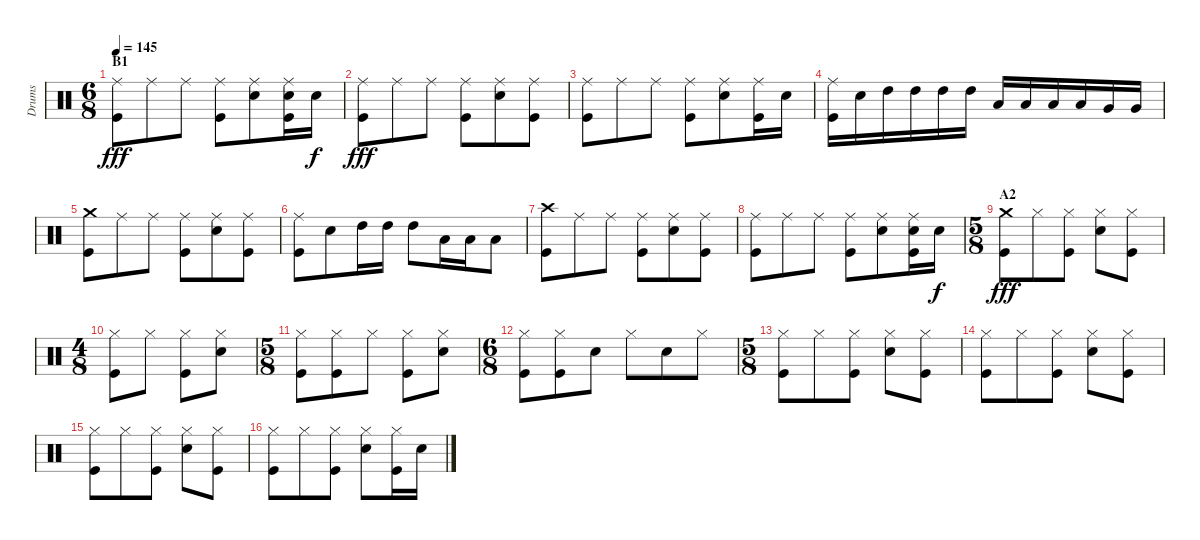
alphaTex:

\track ("Drums" "Drums") {instrument percussion}
\staff {score}
\articulation defaults
\ts (6 8)
\section ("" "B1")
\tempo 145
\clef neutral
\ks c
("Ride (middle)" "Kick (hit)").8{dy fff} "Ride (middle)".8 "Ride (middle)".8 ("Ride (middle)" "Kick (hit)").8 ("Ride (middle)" "Snare (hit) 2").8 ("Ride (middle)" "Snare (hit) 2" "Kick (hit)").16 "Snare (hit) 2".16{dy f} |
("Ride (middle)" "Kick (hit)").8{dy fff} "Ride (middle)".8 "Ride (middle)".8 ("Ride (middle)" "Kick (hit)").8 ("Ride (middle)" "Snare (hit) 2").8 ("Ride (middle)" "Kick (hit)").8 |
("Ride (middle)" "Kick (hit)").8 "Ride (middle)".8 "Ride (middle)".8 ("Ride (middle)" "Kick (hit)").8 ("Ride (middle)" "Snare (hit) 2").8 ("Ride (middle)" "Kick (hit)").16 "Snare (hit) 2".16 |
("Ride (middle)" "Kick (hit)").16 "Snare (hit) 2".16 "High Tom (hit)".16 "High Tom (hit)".16 "High Tom (hit)".16 "High Tom (hit)".16 "Low Tom (hit)".16 "Low Tom (hit)".16 "Low Tom (hit)".16 "Low Tom (hit)".16 "Very Low Tom (hit)".16 "Very Low Tom (hit)".16 |
("Crash medium (hit)" "Kick (hit)").8 "Ride (middle)".8 "Ride (middle)".8 ("Ride (middle)" "Kick (hit)").8 ("Ride (middle)" "Snare (hit) 2").8 ("Ride (middle)" "Kick (hit)").8 |
("Ride (middle)" "Kick (hit)").8 "Snare (hit) 2".8 "High Tom (hit)".16 "High Tom (hit)".16 "High Tom (hit)".8 "Low Tom (hit)".16 "Low Tom (hit)".16 "Low Tom (hit)".8 |
("Crash high (hit)" "Kick (hit)").8 "Ride (middle)".8 "Ride (middle)".8 ("Ride (middle)" "Kick (hit)").8 ("Ride (middle)" "Snare (hit) 2").8 ("Ride (middle)" "Kick (hit)").8 |
("Ride (middle)" "Kick (hit)").8 "Ride (middle)".8 "Ride (middle)".8 ("Ride (middle)" "Kick (hit)").8 ("Ride (middle)" "Snare (hit) 2").8 ("Ride (middle)" "Snare (hit) 2" "Kick (hit)").16 "Snare (hit) 2".16{dy f} |
\ts (5 8)
\section ("" "A2")
("Crash medium (hit)" "Kick (hit)").8{dy fff} "Hi-Hat (closed)".8 ("Hi-Hat (closed)" "Kick (hit)").8 ("Hi-Hat (closed)" "Snare (hit) 2").8 ("Hi-Hat (closed)" "Kick (hit)").8 |
\ts (4 8)
("Hi-Hat (closed)" "Kick (hit)").8 "Hi-Hat (closed)".8 ("Hi-Hat (closed)" "Kick (hit)").8 ("Hi-Hat (closed)" "Snare (hit) 2").8 |
\ts (5 8)
("Hi-Hat (closed)" "Kick (hit)").8 ("Hi-Hat (closed)" "Kick (hit)").8 "Hi-Hat (closed)".8 ("Hi-Hat (closed)" "Kick (hit)").8 ("Hi-Hat (closed)" "Snare (hit) 2").8 |
\ts (6 8)
("Hi-Hat (closed)" "Kick (hit)").8 ("Hi-Hat (closed)" "Kick (hit)").8 "Snare (hit) 2".8 "Hi-Hat (closed)".8 "Snare (hit) 2".8 "Hi-Hat (closed)".8 |
\ts (5 8)
("Hi-Hat (closed)" "Kick (hit)").8 "Hi-Hat (closed)".8 ("Hi-Hat (closed)" "Kick (hit)").8 ("Hi-Hat (closed)" "Snare (hit) 2").8 ("Hi-Hat (closed)" "Kick (hit)").8 |
("Hi-Hat (closed)" "Kick (hit)").8 "Hi-Hat (closed)".8 ("Hi-Hat (closed)" "Kick (hit)").8 ("Hi-Hat (closed)" "Snare (hit) 2").8 ("Hi-Hat (closed)" "Kick (hit)").8 |
("Hi-Hat (closed)" "Kick (hit)").8 "Hi-Hat (closed)".8 ("Hi-Hat (closed)" "Kick (hit)").8 ("Hi-Hat (closed)" "Snare (hit) 2").8 ("Hi-Hat (closed)" "Kick (hit)").8 |
("Hi-Hat (closed)" "Kick (hit)").8 "Hi-Hat (closed)".8 ("Hi-Hat (closed)" "Kick (hit)").8 ("Hi-Hat (closed)" "Snare (hit) 2").8 ("Hi-Hat (closed)" "Kick (hit)").16 "Snare (hit) 2".16
